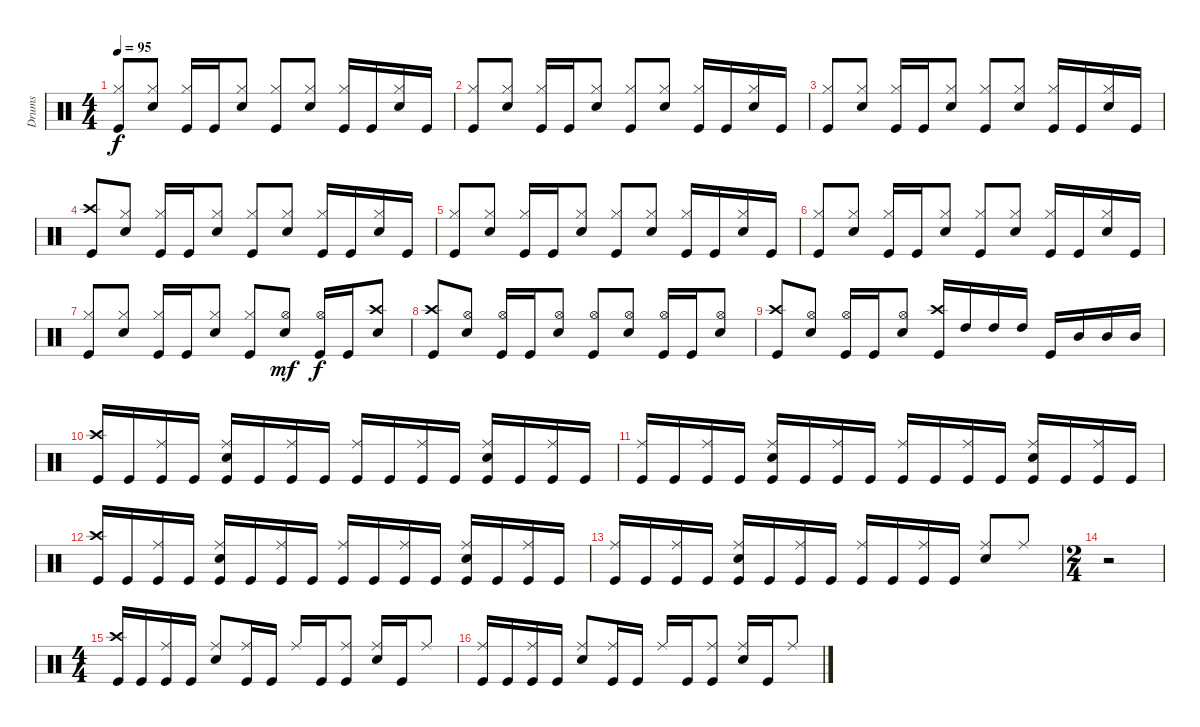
\track ("Drums" "Drums") {instrument percussion}
\staff {score}
\articulation defaults
\ts (4 4)
\tempo 95
\clef neutral
\ks c
("Kick (hit)" "Hi-Hat (closed)").8{dy f beam Up} ("Snare (hit) 2" "Hi-Hat (closed)").8{beam Up} ("Kick (hit)" "Hi-Hat (closed)").16{beam Up} "Kick (hit)".16{beam Up} ("Snare (hit) 2" "Hi-Hat (closed)").8{beam Up} ("Kick (hit)" "Hi-Hat (closed)").8{beam Up} ("Snare (hit) 2" "Hi-Hat (closed)").8{beam Up} ("Kick (hit)" "Hi-Hat (closed)").16{beam Up} "Kick (hit)".16{beam Up} ("Snare (hit) 2" "Hi-Hat (closed)").16{beam Up} "Kick (hit)".16{beam Up} |
("Kick (hit)" "Hi-Hat (closed)").8{beam Up} ("Snare (hit) 2" "Hi-Hat (closed)").8{beam Up} ("Kick (hit)" "Hi-Hat (closed)").16{beam Up} "Kick (hit)".16{beam Up} ("Snare (hit) 2" "Hi-Hat (closed)").8{beam Up} ("Kick (hit)" "Hi-Hat (closed)").8{beam Up} ("Snare (hit) 2" "Hi-Hat (closed)").8{beam Up} ("Kick (hit)" "Hi-Hat (closed)").16{beam Up} "Kick (hit)".16{beam Up} ("Snare (hit) 2" "Hi-Hat (closed)").16{beam Up} "Kick (hit)".16{beam Up} |
("Kick (hit)" "Hi-Hat (closed)").8{beam Up} ("Snare (hit) 2" "Hi-Hat (closed)").8{beam Up} ("Kick (hit)" "Hi-Hat (closed)").16{beam Up} "Kick (hit)".16{beam Up} ("Snare (hit) 2" "Hi-Hat (closed)").8{beam Up} ("Kick (hit)" "Hi-Hat (closed)").8{beam Up} ("Snare (hit) 2" "Hi-Hat (closed)").8{beam Up} ("Kick (hit)" "Hi-Hat (closed)").16{beam Up} "Kick (hit)".16{beam Up} ("Snare (hit) 2" "Hi-Hat (closed)").16{beam Up} "Kick (hit)".16{beam Up} |
("Kick (hit)" "Crash high (hit)").8{beam Up} ("Snare (hit) 2" "Hi-Hat (closed)").8{beam Up} ("Kick (hit)" "Hi-Hat (closed)").16{beam Up} "Kick (hit)".16{beam Up} ("Snare (hit) 2" "Hi-Hat (closed)").8{beam Up} ("Kick (hit)" "Hi-Hat (closed)").8{beam Up} ("Snare (hit) 2" "Hi-Hat (closed)").8{beam Up} ("Kick (hit)" "Hi-Hat (closed)").16{beam Up} "Kick (hit)".16{beam Up} ("Snare (hit) 2" "Hi-Hat (closed)").16{beam Up} "Kick (hit)".16{beam Up} |
("Kick (hit)" "Hi-Hat (closed)").8{beam Up} ("Snare (hit) 2" "Hi-Hat (closed)").8{beam Up} ("Kick (hit)" "Hi-Hat (closed)").16{beam Up} "Kick (hit)".16{beam Up} ("Snare (hit) 2" "Hi-Hat (closed)").8{beam Up} ("Kick (hit)" "Hi-Hat (closed)").8{beam Up} ("Snare (hit) 2" "Hi-Hat (closed)").8{beam Up} ("Kick (hit)" "Hi-Hat (closed)").16{beam Up} "Kick (hit)".16{beam Up} ("Snare (hit) 2" "Hi-Hat (closed)").16{beam Up} "Kick (hit)".16{beam Up} |
("Kick (hit)" "Hi-Hat (closed)").8{beam Up} ("Snare (hit) 2" "Hi-Hat (closed)").8{beam Up} ("Kick (hit)" "Hi-Hat (closed)").16{beam Up} "Kick (hit)".16{beam Up} ("Snare (hit) 2" "Hi-Hat (closed)").8{beam Up} ("Kick (hit)" "Hi-Hat (closed)").8{beam Up} ("Snare (hit) 2" "Hi-Hat (closed)").8{beam Up} ("Kick (hit)" "Hi-Hat (closed)").16{beam Up} "Kick (hit)".16{beam Up} ("Snare (hit) 2" "Hi-Hat (closed)").16{beam Up} "Kick (hit)".16{beam Up} |
("Kick (hit)" "Hi-Hat (closed)").8{beam Up} ("Snare (hit) 2" "Hi-Hat (closed)").8{beam Up} ("Kick (hit)" "Hi-Hat (closed)").16{beam Up} "Kick (hit)".16{beam Up} ("Snare (hit) 2" "Hi-Hat (closed)").8{beam Up} ("Kick (hit)" "Hi-Hat (closed)").8{beam Up} ("Snare (hit) 2" "Hi-Hat (open)").8{dy mf beam Up} ("Kick (hit)" "Hi-Hat (open)").16{dy f beam Up} "Kick (hit)".16{beam Up} ("Snare (hit) 2" "Crash high (hit)").8{beam Up} |
("Kick (hit)" "Crash high (hit)").8{beam Up} ("Snare (hit) 2" "Hi-Hat (open)").8{beam Up} ("Kick (hit)" "Hi-Hat (open)").16{beam Up} "Kick (hit)".16{beam Up} ("Snare (hit) 2" "Hi-Hat (open)").8{beam Up} ("Kick (hit)" "Hi-Hat (open)").8{beam Up} ("Snare (hit) 2" "Hi-Hat (open)").8{beam Up} ("Kick (hit)" "Hi-Hat (open)").16{beam Up} "Kick (hit)".16{beam Up} ("Snare (hit) 2" "Hi-Hat (open)").8{beam Up} |
("Kick (hit)" "Crash high (hit)").8{beam Up} ("Snare (hit) 2" "Hi-Hat (open)").8{beam Up} ("Kick (hit)" "Hi-Hat (open)").16{beam Up} "Kick (hit)".16{beam Up} ("Snare (hit) 2" "Hi-Hat (open)").8{beam Up} ("Kick (hit)" "Crash high (hit)").16{beam Up} "High Tom (hit)".16{beam Up} "High Tom (hit)".16{beam Up} "High Tom (hit)".16{beam Up} "Kick (hit)".16{beam Up} "Mid Tom (hit)".16{beam Up} "Mid Tom (hit)".16{beam Up} "Mid Tom (hit)".16{beam Up} |
("Kick (hit)" "Crash high (hit)").16{beam Up} "Kick (hit)".16{beam Up} ("Kick (hit)" "Ride (middle)").16{beam Up} "Kick (hit)".16{beam Up} ("Ride (middle)" "Snare (hit) 2" "Kick (hit)").16{beam Up} "Kick (hit)".16{beam Up} ("Kick (hit)" "Ride (middle)").16{beam Up} "Kick (hit)".16{beam Up} ("Kick (hit)" "Ride (middle)").16{beam Up} "Kick (hit)".16{beam Up} ("Kick (hit)" "Ride (middle)").16{beam Up} "Kick (hit)".16{beam Up} ("Kick (hit)" "Ride (middle)" "Snare (hit) 2").16{beam Up} "Kick (hit)".16{beam Up} ("Kick (hit)" "Ride (middle)").16{beam Up} "Kick (hit)".16{beam Up} |
("Kick (hit)" "Ride (middle)").16{beam Up} "Kick (hit)".16{beam Up} ("Kick (hit)" "Ride (middle)").16{beam Up} "Kick (hit)".16{beam Up} ("Kick (hit)" "Ride (middle)" "Snare (hit) 2").16{beam Up} "Kick (hit)".16{beam Up} ("Kick (hit)" "Ride (middle)").16{beam Up} "Kick (hit)".16{beam Up} ("Kick (hit)" "Ride (middle)").16{beam Up} "Kick (hit)".16{beam Up} ("Kick (hit)" "Ride (middle)").16{beam Up} "Kick (hit)".16{beam Up} ("Kick (hit)" "Ride (middle)" "Snare (hit) 2").16{beam Up} "Kick (hit)".16{beam Up} ("Kick (hit)" "Ride (middle)").16{beam Up} "Kick (hit)".16{beam Up} |
("Kick (hit)" "Crash high (hit)").16{beam Up} "Kick (hit)".16{beam Up} ("Kick (hit)" "Ride (middle)").16{beam Up} "Kick (hit)".16{beam Up} ("Kick (hit)" "Ride (middle)" "Snare (hit) 2").16{beam Up} "Kick (hit)".16{beam Up} ("Kick (hit)" "Ride (middle)").16{beam Up} "Kick (hit)".16{beam Up} ("Kick (hit)" "Ride (middle)").16{beam Up} "Kick (hit)".16{beam Up} ("Kick (hit)" "Ride (middle)").16{beam Up} "Kick (hit)".16{beam Up} ("Kick (hit)" "Ride (middle)" "Snare (hit) 2").16{beam Up} "Kick (hit)".16{beam Up} ("Kick (hit)" "Ride (middle)").16{beam Up} "Kick (hit)".16{beam Up} |
("Kick (hit)" "Ride (middle)").16{beam Up} "Kick (hit)".16{beam Up} ("Kick (hit)" "Ride (middle)").16{beam Up} "Kick (hit)".16{beam Up} ("Kick (hit)" "Ride (middle)" "Snare (hit) 2").16{beam Up} "Kick (hit)".16{beam Up} ("Kick (hit)" "Ride (middle)").16{beam Up} "Kick (hit)".16{beam Up} ("Kick (hit)" "Ride (middle)").16{beam Up} "Kick (hit)".16{beam Up} ("Kick (hit)" "Ride (middle)").16{beam Up} "Kick (hit)".16{beam Up} ("Snare (hit) 2" "Ride (middle)").8{beam Up} "Ride (middle)".8{beam Up} |
\ts (2 4)
r.2 |
\ts (4 4)
("Kick (hit)" "Crash high (hit)").16{beam Up} "Kick (hit)".16{beam Up} ("Kick (hit)" "Ride (middle)").16{beam Up} "Kick (hit)".16{beam Up} ("Snare (hit) 2" "Ride (middle)").8{beam Up} ("Ride (middle)" "Kick (hit)").16{beam Up} "Kick (hit)".16{beam Up} "Ride (middle)".16{beam Up} "Kick (hit)".16{beam Up} ("Kick (hit)" "Ride (middle)").8{beam Up} ("Snare (hit) 2" "Ride (middle)").16{beam Up} "Kick (hit)".16{beam Up} "Ride (middle)".8{beam Up} |
("Kick (hit)" "Ride (middle)").16{beam Up} "Kick (hit)".16{beam Up} ("Kick (hit)" "Ride (middle)").16{beam Up} "Kick (hit)".16{beam Up} ("Snare (hit) 2" "Ride (middle)").8{beam Up} ("Ride (middle)" "Kick (hit)").16{beam Up} "Kick (hit)".16{beam Up} "Ride (middle)".16{beam Up} "Kick (hit)".16{beam Up} ("Kick (hit)" "Ride (middle)").8{beam Up} ("Snare (hit) 2" "Ride (middle)").16{beam Up} "Kick (hit)".16{beam Up} "Ride (middle)".8{beam Up}
